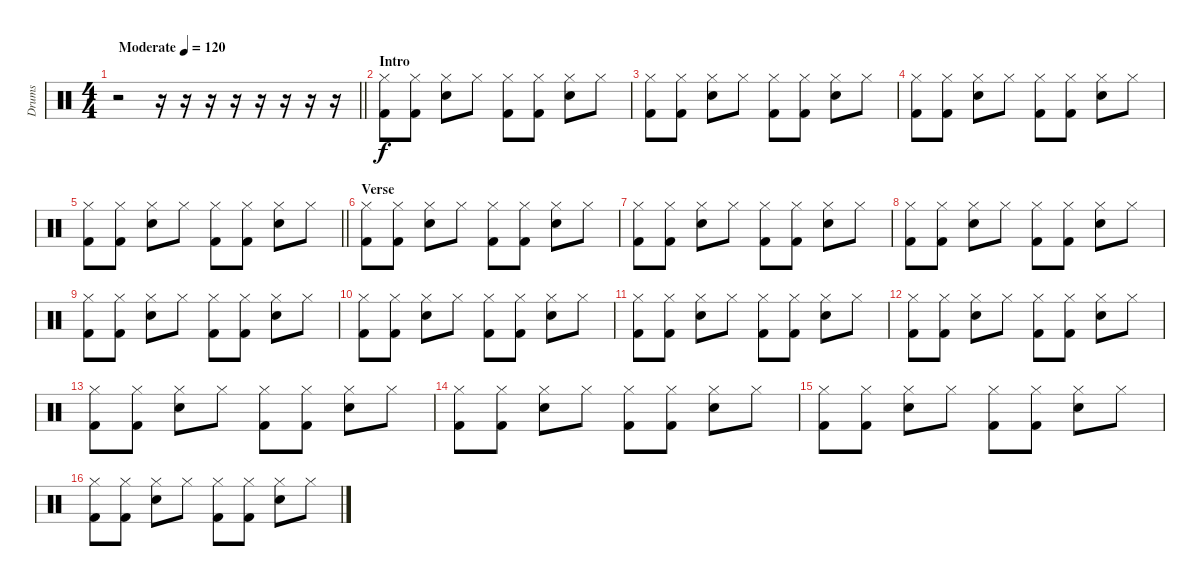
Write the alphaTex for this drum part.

\track ("Drums" "Drums") {instrument percussion}
\staff {score}
\articulation defaults
\ts (4 4)
\tempo (120 "Moderate")
\clef neutral
\barLineRight lightlight
\ks c
r.2{dy f} r.16 r.16 r.16 r.16 r.16 r.16 r.16 r.16 |
\section ("" "Intro")
("Kick (hit) 2" "Hi-Hat (closed)").8 ("Kick (hit) 2" "Hi-Hat (closed)").8 ("Electric Snare (hit)" "Hi-Hat (closed)").8 "Hi-Hat (closed)".8 ("Kick (hit) 2" "Hi-Hat (closed)").8 ("Kick (hit) 2" "Hi-Hat (closed)").8 ("Electric Snare (hit)" "Hi-Hat (closed)").8 "Hi-Hat (closed)".8 |
("Kick (hit) 2" "Hi-Hat (closed)").8 ("Kick (hit) 2" "Hi-Hat (closed)").8 ("Electric Snare (hit)" "Hi-Hat (closed)").8 "Hi-Hat (closed)".8 ("Kick (hit) 2" "Hi-Hat (closed)").8 ("Kick (hit) 2" "Hi-Hat (closed)").8 ("Electric Snare (hit)" "Hi-Hat (closed)").8 "Hi-Hat (closed)".8 |
("Kick (hit) 2" "Hi-Hat (closed)").8 ("Kick (hit) 2" "Hi-Hat (closed)").8 ("Electric Snare (hit)" "Hi-Hat (closed)").8 "Hi-Hat (closed)".8 ("Kick (hit) 2" "Hi-Hat (closed)").8 ("Kick (hit) 2" "Hi-Hat (closed)").8 ("Electric Snare (hit)" "Hi-Hat (closed)").8 "Hi-Hat (closed)".8 |
\barLineRight lightlight
("Kick (hit) 2" "Hi-Hat (closed)").8 ("Kick (hit) 2" "Hi-Hat (closed)").8 ("Electric Snare (hit)" "Hi-Hat (closed)").8 "Hi-Hat (closed)".8 ("Kick (hit) 2" "Hi-Hat (closed)").8 ("Kick (hit) 2" "Hi-Hat (closed)").8 ("Electric Snare (hit)" "Hi-Hat (closed)").8 "Hi-Hat (closed)".8 |
\section ("" "Verse")
("Kick (hit) 2" "Hi-Hat (closed)").8 ("Kick (hit) 2" "Hi-Hat (closed)").8 ("Electric Snare (hit)" "Hi-Hat (closed)").8 "Hi-Hat (closed)".8 ("Kick (hit) 2" "Hi-Hat (closed)").8 ("Kick (hit) 2" "Hi-Hat (closed)").8 ("Electric Snare (hit)" "Hi-Hat (closed)").8 "Hi-Hat (closed)".8 |
("Kick (hit) 2" "Hi-Hat (closed)").8 ("Kick (hit) 2" "Hi-Hat (closed)").8 ("Electric Snare (hit)" "Hi-Hat (closed)").8 "Hi-Hat (closed)".8 ("Kick (hit) 2" "Hi-Hat (closed)").8 ("Kick (hit) 2" "Hi-Hat (closed)").8 ("Electric Snare (hit)" "Hi-Hat (closed)").8 "Hi-Hat (closed)".8 |
("Kick (hit) 2" "Hi-Hat (closed)").8 ("Kick (hit) 2" "Hi-Hat (closed)").8 ("Electric Snare (hit)" "Hi-Hat (closed)").8 "Hi-Hat (closed)".8 ("Kick (hit) 2" "Hi-Hat (closed)").8 ("Kick (hit) 2" "Hi-Hat (closed)").8 ("Electric Snare (hit)" "Hi-Hat (closed)").8 "Hi-Hat (closed)".8 |
("Kick (hit) 2" "Hi-Hat (closed)").8 ("Kick (hit) 2" "Hi-Hat (closed)").8 ("Electric Snare (hit)" "Hi-Hat (closed)").8 "Hi-Hat (closed)".8 ("Kick (hit) 2" "Hi-Hat (closed)").8 ("Kick (hit) 2" "Hi-Hat (closed)").8 ("Electric Snare (hit)" "Hi-Hat (closed)").8 "Hi-Hat (closed)".8 |
("Kick (hit) 2" "Hi-Hat (closed)").8 ("Kick (hit) 2" "Hi-Hat (closed)").8 ("Electric Snare (hit)" "Hi-Hat (closed)").8 "Hi-Hat (closed)".8 ("Kick (hit) 2" "Hi-Hat (closed)").8 ("Kick (hit) 2" "Hi-Hat (closed)").8 ("Electric Snare (hit)" "Hi-Hat (closed)").8 "Hi-Hat (closed)".8 |
("Kick (hit) 2" "Hi-Hat (closed)").8 ("Kick (hit) 2" "Hi-Hat (closed)").8 ("Electric Snare (hit)" "Hi-Hat (closed)").8 "Hi-Hat (closed)".8 ("Kick (hit) 2" "Hi-Hat (closed)").8 ("Kick (hit) 2" "Hi-Hat (closed)").8 ("Electric Snare (hit)" "Hi-Hat (closed)").8 "Hi-Hat (closed)".8 |
("Kick (hit) 2" "Hi-Hat (closed)").8 ("Kick (hit) 2" "Hi-Hat (closed)").8 ("Electric Snare (hit)" "Hi-Hat (closed)").8 "Hi-Hat (closed)".8 ("Kick (hit) 2" "Hi-Hat (closed)").8 ("Kick (hit) 2" "Hi-Hat (closed)").8 ("Electric Snare (hit)" "Hi-Hat (closed)").8 "Hi-Hat (closed)".8 |
("Kick (hit) 2" "Hi-Hat (closed)").8 ("Kick (hit) 2" "Hi-Hat (closed)").8 ("Electric Snare (hit)" "Hi-Hat (closed)").8 "Hi-Hat (closed)".8 ("Kick (hit) 2" "Hi-Hat (closed)").8 ("Kick (hit) 2" "Hi-Hat (closed)").8 ("Electric Snare (hit)" "Hi-Hat (closed)").8 "Hi-Hat (closed)".8 |
("Kick (hit) 2" "Hi-Hat (closed)").8 ("Kick (hit) 2" "Hi-Hat (closed)").8 ("Electric Snare (hit)" "Hi-Hat (closed)").8 "Hi-Hat (closed)".8 ("Kick (hit) 2" "Hi-Hat (closed)").8 ("Kick (hit) 2" "Hi-Hat (closed)").8 ("Electric Snare (hit)" "Hi-Hat (closed)").8 "Hi-Hat (closed)".8 |
("Kick (hit) 2" "Hi-Hat (closed)").8 ("Kick (hit) 2" "Hi-Hat (closed)").8 ("Electric Snare (hit)" "Hi-Hat (closed)").8 "Hi-Hat (closed)".8 ("Kick (hit) 2" "Hi-Hat (closed)").8 ("Kick (hit) 2" "Hi-Hat (closed)").8 ("Electric Snare (hit)" "Hi-Hat (closed)").8 "Hi-Hat (closed)".8 |
("Kick (hit) 2" "Hi-Hat (closed)").8 ("Kick (hit) 2" "Hi-Hat (closed)").8 ("Electric Snare (hit)" "Hi-Hat (closed)").8 "Hi-Hat (closed)".8 ("Kick (hit) 2" "Hi-Hat (closed)").8 ("Kick (hit) 2" "Hi-Hat (closed)").8 ("Electric Snare (hit)" "Hi-Hat (closed)").8 "Hi-Hat (closed)".8
